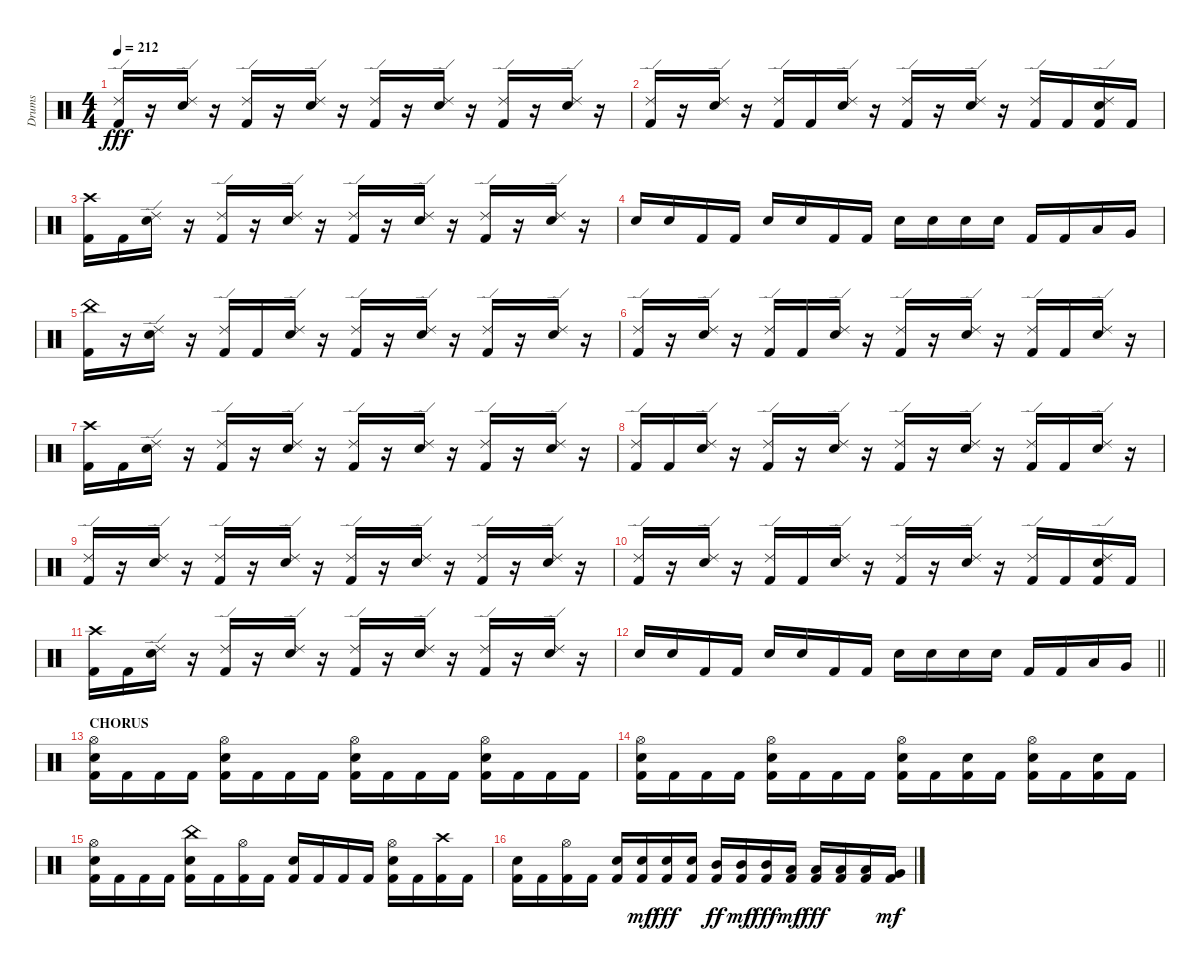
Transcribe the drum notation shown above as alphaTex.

\track ("Drums" "Drums") {instrument percussion}
\staff {score}
\articulation defaults
\ts (4 4)
\tempo 212
\clef neutral
\ks c
("Kick (hit) 2" "Ride (edge) 2").16{dy fff} r.16 ("Snare (hit) 2" "Ride (edge) 2").16 r.16 ("Kick (hit) 2" "Ride (edge) 2").16 r.16 ("Snare (hit) 2" "Ride (edge) 2").16 r.16 ("Kick (hit) 2" "Ride (edge) 2").16 r.16 ("Snare (hit) 2" "Ride (edge) 2").16 r.16 ("Kick (hit) 2" "Ride (edge) 2").16 r.16 ("Snare (hit) 2" "Ride (edge) 2").16 r.16 |
("Kick (hit) 2" "Ride (edge) 2").16 r.16 ("Snare (hit) 2" "Ride (edge) 2").16 r.16 ("Kick (hit) 2" "Ride (edge) 2").16 "Kick (hit) 2".16 ("Snare (hit) 2" "Ride (edge) 2").16 r.16 ("Kick (hit) 2" "Ride (edge) 2").16 r.16 ("Snare (hit) 2" "Ride (edge) 2").16 r.16 ("Kick (hit) 2" "Ride (edge) 2").16 "Kick (hit) 2".16 ("Kick (hit) 2" "Snare (hit) 2" "Ride (edge) 2").16 "Kick (hit) 2".16 |
("Kick (hit) 2" "Crash high (hit)").16 "Kick (hit) 2".16 ("Snare (hit) 2" "Ride (edge) 2").16 r.16 ("Kick (hit) 2" "Ride (edge) 2").16 r.16 ("Snare (hit) 2" "Ride (edge) 2").16 r.16 ("Kick (hit) 2" "Ride (edge) 2").16 r.16 ("Snare (hit) 2" "Ride (edge) 2").16 r.16 ("Kick (hit) 2" "Ride (edge) 2").16 r.16 ("Snare (hit) 2" "Ride (edge) 2").16 r.16 |
"Snare (hit) 2".16 "Snare (hit) 2".16 "Kick (hit) 2".16 "Kick (hit) 2".16 "Snare (hit) 2".16 "Snare (hit) 2".16 "Kick (hit) 2".16 "Kick (hit) 2".16 "Snare (hit) 2".16 "Snare (hit) 2".16 "Snare (hit) 2".16 "Snare (hit) 2".16 "Kick (hit) 2".16 "Kick (hit) 2".16 "Low Tom (hit)".16 "Very Low Tom (hit)".16 |
("Kick (hit) 2" "China (hit)").16 r.16 ("Snare (hit) 2" "Ride (edge) 2").16 r.16 ("Kick (hit) 2" "Ride (edge) 2").16 "Kick (hit) 2".16 ("Snare (hit) 2" "Ride (edge) 2").16 r.16 ("Kick (hit) 2" "Ride (edge) 2").16 r.16 ("Snare (hit) 2" "Ride (edge) 2").16 r.16 ("Kick (hit) 2" "Ride (edge) 2").16 r.16 ("Snare (hit) 2" "Ride (edge) 2").16 r.16 |
("Kick (hit) 2" "Ride (edge) 2").16 r.16 ("Snare (hit) 2" "Ride (edge) 2").16 r.16 ("Kick (hit) 2" "Ride (edge) 2").16 "Kick (hit) 2".16 ("Snare (hit) 2" "Ride (edge) 2").16 r.16 ("Kick (hit) 2" "Ride (edge) 2").16 r.16 ("Snare (hit) 2" "Ride (edge) 2").16 r.16 ("Kick (hit) 2" "Ride (edge) 2").16 "Kick (hit) 2".16 ("Snare (hit) 2" "Ride (edge) 2").16 r.16 |
("Kick (hit) 2" "Crash high (hit)").16 "Kick (hit) 2".16 ("Snare (hit) 2" "Ride (edge) 2").16 r.16 ("Kick (hit) 2" "Ride (edge) 2").16 r.16 ("Snare (hit) 2" "Ride (edge) 2").16 r.16 ("Kick (hit) 2" "Ride (edge) 2").16 r.16 ("Snare (hit) 2" "Ride (edge) 2").16 r.16 ("Kick (hit) 2" "Ride (edge) 2").16 r.16 ("Snare (hit) 2" "Ride (edge) 2").16 r.16 |
("Kick (hit) 2" "Ride (edge) 2").16 "Kick (hit) 2".16 ("Snare (hit) 2" "Ride (edge) 2").16 r.16 ("Kick (hit) 2" "Ride (edge) 2").16 r.16 ("Snare (hit) 2" "Ride (edge) 2").16 r.16 ("Kick (hit) 2" "Ride (edge) 2").16 r.16 ("Snare (hit) 2" "Ride (edge) 2").16 r.16 ("Kick (hit) 2" "Ride (edge) 2").16 "Kick (hit) 2".16 ("Snare (hit) 2" "Ride (edge) 2").16 r.16 |
("Kick (hit) 2" "Ride (edge) 2").16 r.16 ("Snare (hit) 2" "Ride (edge) 2").16 r.16 ("Kick (hit) 2" "Ride (edge) 2").16 r.16 ("Snare (hit) 2" "Ride (edge) 2").16 r.16 ("Kick (hit) 2" "Ride (edge) 2").16 r.16 ("Snare (hit) 2" "Ride (edge) 2").16 r.16 ("Kick (hit) 2" "Ride (edge) 2").16 r.16 ("Snare (hit) 2" "Ride (edge) 2").16 r.16 |
("Kick (hit) 2" "Ride (edge) 2").16 r.16 ("Snare (hit) 2" "Ride (edge) 2").16 r.16 ("Kick (hit) 2" "Ride (edge) 2").16 "Kick (hit) 2".16 ("Snare (hit) 2" "Ride (edge) 2").16 r.16 ("Kick (hit) 2" "Ride (edge) 2").16 r.16 ("Snare (hit) 2" "Ride (edge) 2").16 r.16 ("Kick (hit) 2" "Ride (edge) 2").16 "Kick (hit) 2".16 ("Kick (hit) 2" "Snare (hit) 2" "Ride (edge) 2").16 "Kick (hit) 2".16 |
("Kick (hit) 2" "Crash high (hit)").16 "Kick (hit) 2".16 ("Snare (hit) 2" "Ride (edge) 2").16 r.16 ("Kick (hit) 2" "Ride (edge) 2").16 r.16 ("Snare (hit) 2" "Ride (edge) 2").16 r.16 ("Kick (hit) 2" "Ride (edge) 2").16 r.16 ("Snare (hit) 2" "Ride (edge) 2").16 r.16 ("Kick (hit) 2" "Ride (edge) 2").16 r.16 ("Snare (hit) 2" "Ride (edge) 2").16 r.16 |
\barLineRight lightlight "Snare (hit) 2".16 "Snare (hit) 2".16 "Kick (hit) 2".16 "Kick (hit) 2".16 "Snare (hit) 2".16 "Snare (hit) 2".16 "Kick (hit) 2".16 "Kick (hit) 2".16 "Snare (hit) 2".16 "Snare (hit) 2".16 "Snare (hit) 2".16 "Snare (hit) 2".16 "Kick (hit) 2".16 "Kick (hit) 2".16 "Low Tom (hit)".16 "Very Low Tom (hit)".16
|
\section ("" "CHORUS")
("Kick (hit) 2" "Snare (hit) 2" "Hi-Hat (open)").16 "Kick (hit) 2".16 "Kick (hit) 2".16 "Kick (hit) 2".16 ("Kick (hit) 2" "Snare (hit) 2" "Hi-Hat (open)").16 "Kick (hit) 2".16 "Kick (hit) 2".16 "Kick (hit) 2".16 ("Kick (hit) 2" "Snare (hit) 2" "Hi-Hat (open)").16 "Kick (hit) 2".16 "Kick (hit) 2".16 "Kick (hit) 2".16 ("Kick (hit) 2" "Snare (hit) 2" "Hi-Hat (open)").16 "Kick (hit) 2".16 "Kick (hit) 2".16 "Kick (hit) 2".16 |
("Kick (hit) 2" "Snare (hit) 2" "Hi-Hat (open)").16 "Kick (hit) 2".16 "Kick (hit) 2".16 "Kick (hit) 2".16 ("Kick (hit) 2" "Snare (hit) 2" "Hi-Hat (open)").16 "Kick (hit) 2".16 "Kick (hit) 2".16 "Kick (hit) 2".16 ("Kick (hit) 2" "Snare (hit) 2" "Hi-Hat (open)").16 "Kick (hit) 2".16 ("Kick (hit) 2" "Snare (hit) 2").16 "Kick (hit) 2".16 ("Kick (hit) 2" "Snare (hit) 2" "Hi-Hat (open)").16 "Kick (hit) 2".16 ("Kick (hit) 2" "Snare (hit) 2").16 "Kick (hit) 2".16 |
("Kick (hit) 2" "Snare (hit) 2" "Hi-Hat (open)").16 "Kick (hit) 2".16 "Kick (hit) 2".16 "Kick (hit) 2".16 ("Kick (hit) 2" "Snare (hit) 2" "China (hit)").16 "Kick (hit) 2".16 ("Kick (hit) 2" "Hi-Hat (open)").16 "Kick (hit) 2".16 ("Kick (hit) 2" "Snare (hit) 2").16 "Kick (hit) 2".16 "Kick (hit) 2".16 "Kick (hit) 2".16 ("Kick (hit) 2" "Snare (hit) 2" "Hi-Hat (open)").16 "Kick (hit) 2".16 ("Kick (hit) 2" "Crash high (hit)").16 "Kick (hit) 2".16 |
("Kick (hit) 2" "Snare (hit) 2").16 "Kick (hit) 2".16 ("Kick (hit) 2" "Hi-Hat (open)").16 "Kick (hit) 2".16 ("Kick (hit) 2" "Snare (hit) 2").16 ("Kick (hit) 2" "Snare (hit) 2").16{dy mf} ("Kick (hit) 2" "Snare (hit) 2").16{dy fff} ("Kick (hit) 2" "Snare (hit) 2").16 ("Kick (hit) 2" "Mid Tom (hit)").16{dy ff} ("Kick (hit) 2" "Mid Tom (hit)").16{dy mf} ("Kick (hit) 2" "Mid Tom (hit)").16{dy fff} ("Kick (hit) 2" "Low Tom (hit)").16{dy mf} ("Kick (hit) 2" "Low Tom (hit)").16{dy fff} ("Kick (hit) 2" "Low Tom (hit)").16 ("Kick (hit) 2" "Low Tom (hit)").16 ("Kick (hit) 2" "Very Low Tom (hit)").16{dy mf}
